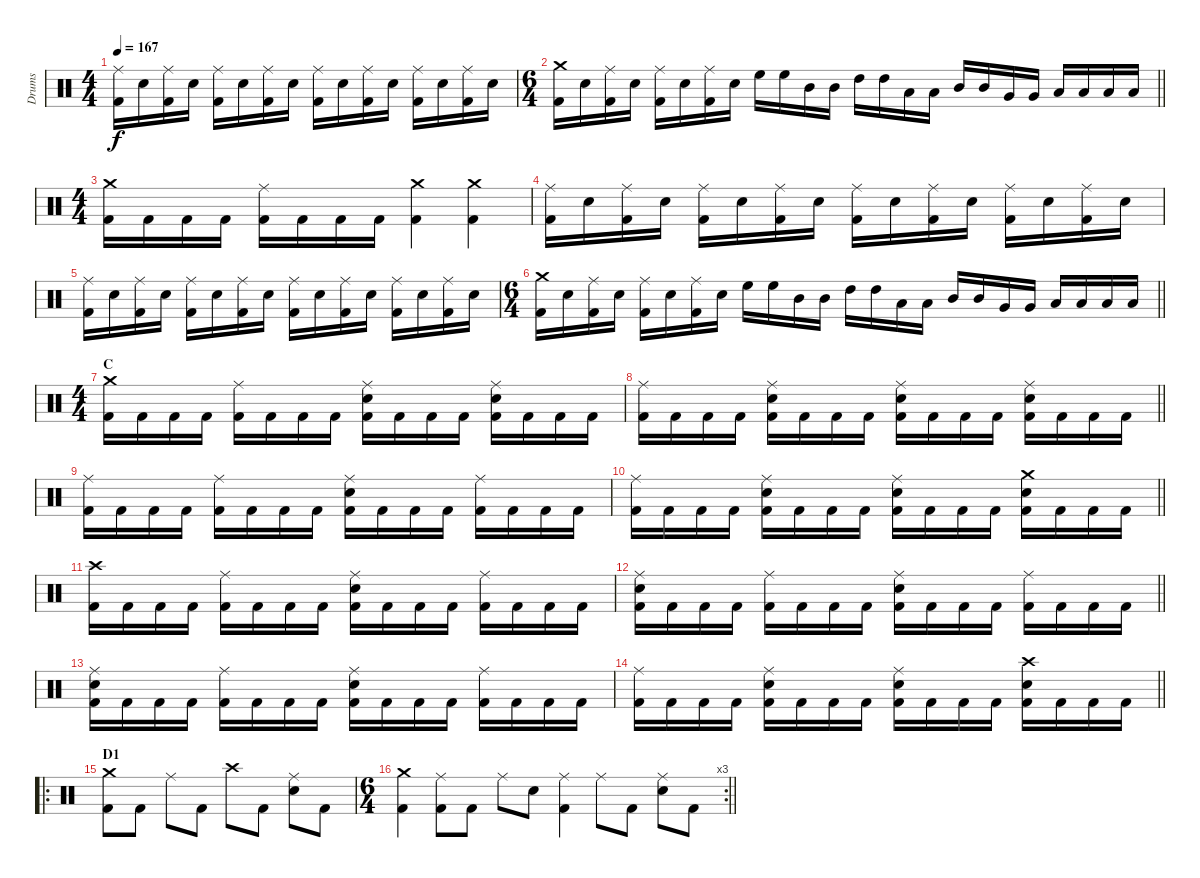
\track ("Drums" "Drums") {instrument percussion}
\staff {score}
\articulation defaults
\ts (4 4)
\tempo 167
\clef neutral
\ks c
("Ride (middle)" "Kick (hit) 2").16{dy f} "Electric Snare (hit)".16 ("Ride (middle)" "Kick (hit) 2").16 "Electric Snare (hit)".16 ("Ride (middle)" "Kick (hit) 2").16 "Electric Snare (hit)".16 ("Ride (middle)" "Kick (hit) 2").16 "Electric Snare (hit)".16 ("Ride (middle)" "Kick (hit) 2").16 "Electric Snare (hit)".16 ("Ride (middle)" "Kick (hit) 2").16 "Electric Snare (hit)".16 ("Ride (middle)" "Kick (hit) 2").16 "Electric Snare (hit)".16 ("Ride (middle)" "Kick (hit) 2").16 "Electric Snare (hit)".16 |
\ts (6 4)
\barLineRight lightlight
("Crash medium (hit)" "Kick (hit) 2").16 "Electric Snare (hit)".16 ("Ride (middle)" "Kick (hit) 2").16 "Electric Snare (hit)".16 ("Ride (middle)" "Kick (hit) 2").16 "Electric Snare (hit)".16 ("Ride (middle)" "Kick (hit) 2").16 "Electric Snare (hit)".16 "High Floor Tom (hit)".16 "High Floor Tom (hit)".16 "Mid Tom (hit)".16 "Mid Tom (hit)".16 "High Tom (hit)".16 "High Tom (hit)".16 "Low Tom (hit)".16 "Low Tom (hit)".16 "Mid Tom (hit)".16 "Mid Tom (hit)".16 "Very Low Tom (hit)".16 "Very Low Tom (hit)".16 "Low Tom (hit)".16 "Low Tom (hit)".16 "Low Floor Tom (hit)".16 "Low Floor Tom (hit)".16 |
\ts (4 4)
\section ("" "")
("Crash medium (hit)" "Kick (hit) 2").16 "Kick (hit) 2".16 "Kick (hit) 2".16 "Kick (hit) 2".16 ("Ride (middle)" "Kick (hit) 2").16 "Kick (hit) 2".16 "Kick (hit) 2".16 "Kick (hit) 2".16 ("Crash medium (hit)" "Kick (hit) 2").4 ("Crash medium (hit)" "Kick (hit) 2").4 |
("Ride (middle)" "Kick (hit) 2").16 "Electric Snare (hit)".16 ("Ride (middle)" "Kick (hit) 2").16 "Electric Snare (hit)".16 ("Ride (middle)" "Kick (hit) 2").16 "Electric Snare (hit)".16 ("Ride (middle)" "Kick (hit) 2").16 "Electric Snare (hit)".16 ("Ride (middle)" "Kick (hit) 2").16 "Electric Snare (hit)".16 ("Ride (middle)" "Kick (hit) 2").16 "Electric Snare (hit)".16 ("Ride (middle)" "Kick (hit) 2").16 "Electric Snare (hit)".16 ("Ride (middle)" "Kick (hit) 2").16 "Electric Snare (hit)".16 |
("Ride (middle)" "Kick (hit) 2").16 "Electric Snare (hit)".16 ("Ride (middle)" "Kick (hit) 2").16 "Electric Snare (hit)".16 ("Ride (middle)" "Kick (hit) 2").16 "Electric Snare (hit)".16 ("Ride (middle)" "Kick (hit) 2").16 "Electric Snare (hit)".16 ("Ride (middle)" "Kick (hit) 2").16 "Electric Snare (hit)".16 ("Ride (middle)" "Kick (hit) 2").16 "Electric Snare (hit)".16 ("Ride (middle)" "Kick (hit) 2").16 "Electric Snare (hit)".16 ("Ride (middle)" "Kick (hit) 2").16 "Electric Snare (hit)".16 |
\ts (6 4)
\barLineRight lightlight
("Crash medium (hit)" "Kick (hit) 2").16 "Electric Snare (hit)".16 ("Ride (middle)" "Kick (hit) 2").16 "Electric Snare (hit)".16 ("Ride (middle)" "Kick (hit) 2").16 "Electric Snare (hit)".16 ("Ride (middle)" "Kick (hit) 2").16 "Electric Snare (hit)".16 "High Floor Tom (hit)".16 "High Floor Tom (hit)".16 "Mid Tom (hit)".16 "Mid Tom (hit)".16 "High Tom (hit)".16 "High Tom (hit)".16 "Low Tom (hit)".16 "Low Tom (hit)".16 "Mid Tom (hit)".16 "Mid Tom (hit)".16 "Very Low Tom (hit)".16 "Very Low Tom (hit)".16 "Low Tom (hit)".16 "Low Tom (hit)".16 "Low Floor Tom (hit)".16 "Low Floor Tom (hit)".16 |
\ts (4 4)
\section ("" "C")
("Crash medium (hit)" "Kick (hit) 2").16 "Kick (hit) 2".16 "Kick (hit) 2".16 "Kick (hit) 2".16 ("Ride (middle)" "Kick (hit) 2").16 "Kick (hit) 2".16 "Kick (hit) 2".16 "Kick (hit) 2".16 ("Ride (middle)" "Electric Snare (hit)" "Kick (hit) 2").16 "Kick (hit) 2".16 "Kick (hit) 2".16 "Kick (hit) 2".16 ("Ride (middle)" "Electric Snare (hit)" "Kick (hit) 2").16 "Kick (hit) 2".16 "Kick (hit) 2".16 "Kick (hit) 2".16 |
\barLineRight lightlight
("Ride (middle)" "Kick (hit) 2").16 "Kick (hit) 2".16 "Kick (hit) 2".16 "Kick (hit) 2".16 ("Ride (middle)" "Electric Snare (hit)" "Kick (hit) 2").16 "Kick (hit) 2".16 "Kick (hit) 2".16 "Kick (hit) 2".16 ("Ride (middle)" "Electric Snare (hit)" "Kick (hit) 2").16 "Kick (hit) 2".16 "Kick (hit) 2".16 "Kick (hit) 2".16 ("Ride (middle)" "Electric Snare (hit)" "Kick (hit) 2").16 "Kick (hit) 2".16 "Kick (hit) 2".16 "Kick (hit) 2".16 |
\section ("" "")
("Ride (middle)" "Kick (hit) 2").16 "Kick (hit) 2".16 "Kick (hit) 2".16 "Kick (hit) 2".16 ("Ride (middle)" "Kick (hit) 2").16 "Kick (hit) 2".16 "Kick (hit) 2".16 "Kick (hit) 2".16 ("Ride (middle)" "Electric Snare (hit)" "Kick (hit) 2").16 "Kick (hit) 2".16 "Kick (hit) 2".16 "Kick (hit) 2".16 ("Ride (middle)" "Kick (hit) 2").16 "Kick (hit) 2".16 "Kick (hit) 2".16 "Kick (hit) 2".16 |
\barLineRight lightlight
("Ride (middle)" "Kick (hit) 2").16 "Kick (hit) 2".16 "Kick (hit) 2".16 "Kick (hit) 2".16 ("Ride (middle)" "Electric Snare (hit)" "Kick (hit) 2").16 "Kick (hit) 2".16 "Kick (hit) 2".16 "Kick (hit) 2".16 ("Ride (middle)" "Electric Snare (hit)" "Kick (hit) 2").16 "Kick (hit) 2".16 "Kick (hit) 2".16 "Kick (hit) 2".16 ("Crash medium (hit)" "Electric Snare (hit)" "Kick (hit) 2").16 "Kick (hit) 2".16 "Kick (hit) 2".16 "Kick (hit) 2".16 |
\section ("" "")
("Crash high (hit)" "Kick (hit) 2").16 "Kick (hit) 2".16 "Kick (hit) 2".16 "Kick (hit) 2".16 ("Ride (middle)" "Kick (hit) 2").16 "Kick (hit) 2".16 "Kick (hit) 2".16 "Kick (hit) 2".16 ("Ride (middle)" "Electric Snare (hit)" "Kick (hit) 2").16 "Kick (hit) 2".16 "Kick (hit) 2".16 "Kick (hit) 2".16 ("Ride (middle)" "Kick (hit) 2").16 "Kick (hit) 2".16 "Kick (hit) 2".16 "Kick (hit) 2".16 |
\barLineRight lightlight
("Ride (middle)" "Electric Snare (hit)" "Kick (hit) 2").16 "Kick (hit) 2".16 "Kick (hit) 2".16 "Kick (hit) 2".16 ("Ride (middle)" "Kick (hit) 2").16 "Kick (hit) 2".16 "Kick (hit) 2".16 "Kick (hit) 2".16 ("Ride (middle)" "Electric Snare (hit)" "Kick (hit) 2").16 "Kick (hit) 2".16 "Kick (hit) 2".16 "Kick (hit) 2".16 ("Ride (middle)" "Kick (hit) 2").16 "Kick (hit) 2".16 "Kick (hit) 2".16 "Kick (hit) 2".16 |
\section ("" "")
("Ride (middle)" "Electric Snare (hit)" "Kick (hit) 2").16 "Kick (hit) 2".16 "Kick (hit) 2".16 "Kick (hit) 2".16 ("Ride (middle)" "Kick (hit) 2").16 "Kick (hit) 2".16 "Kick (hit) 2".16 "Kick (hit) 2".16 ("Ride (middle)" "Electric Snare (hit)" "Kick (hit) 2").16 "Kick (hit) 2".16 "Kick (hit) 2".16 "Kick (hit) 2".16 ("Ride (middle)" "Kick (hit) 2").16 "Kick (hit) 2".16 "Kick (hit) 2".16 "Kick (hit) 2".16 |
\barLineRight lightlight
("Ride (middle)" "Kick (hit) 2").16 "Kick (hit) 2".16 "Kick (hit) 2".16 "Kick (hit) 2".16 ("Ride (middle)" "Electric Snare (hit)" "Kick (hit) 2").16 "Kick (hit) 2".16 "Kick (hit) 2".16 "Kick (hit) 2".16 ("Ride (middle)" "Electric Snare (hit)" "Kick (hit) 2").16 "Kick (hit) 2".16 "Kick (hit) 2".16 "Kick (hit) 2".16 ("Crash high (hit)" "Electric Snare (hit)" "Kick (hit) 2").16 "Kick (hit) 2".16 "Kick (hit) 2".16 "Kick (hit) 2".16 |
\ro
\section ("" "D1")
("Crash medium (hit)" "Kick (hit) 2").8 "Kick (hit) 2".8 "Ride (middle)".8 "Kick (hit) 2".8 "Crash high (hit)".8 "Kick (hit) 2".8 ("Ride (middle)" "Electric Snare (hit)").8 "Kick (hit) 2".8 |
\rc 3
\ts (6 4)
\barLineRight lightlight
("Crash medium (hit)" "Kick (hit) 2").4 ("Ride (middle)" "Kick (hit) 2").8 "Kick (hit) 2".8 "Ride (middle)".8 "Electric Snare (hit)".8 ("Ride (middle)" "Kick (hit) 2").4 "Ride (middle)".8 "Kick (hit) 2".8 ("Ride (middle)" "Electric Snare (hit)").8 "Kick (hit) 2".8
